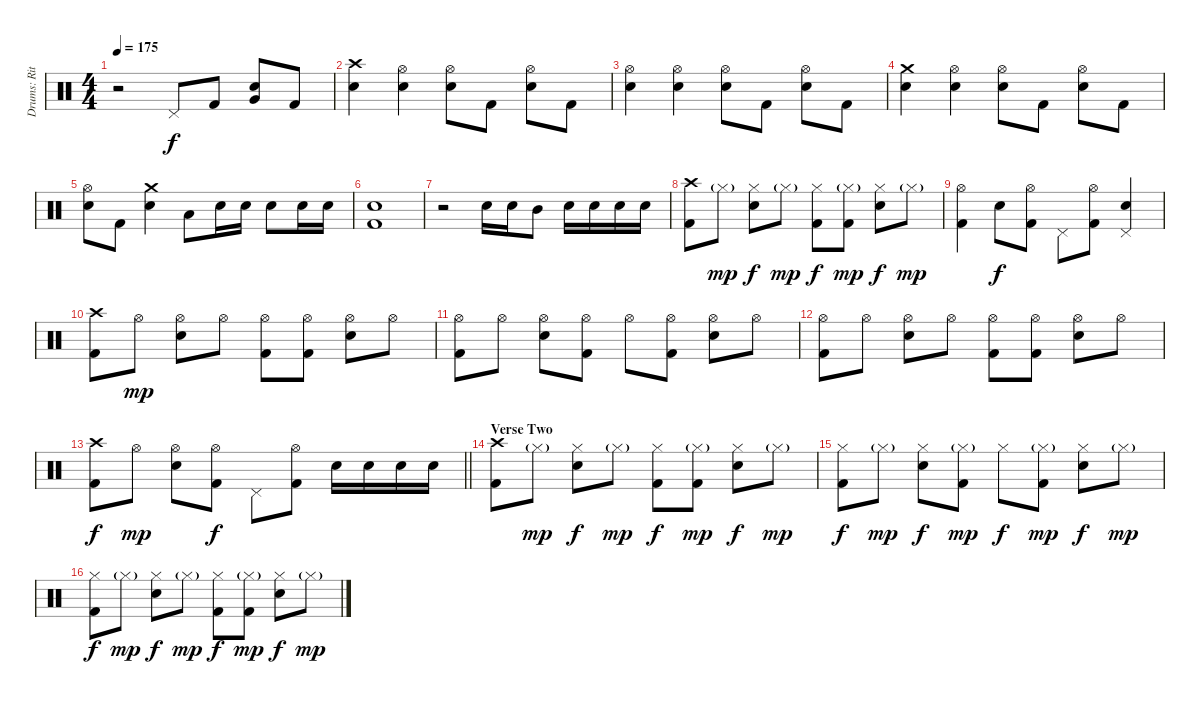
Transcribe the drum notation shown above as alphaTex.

\track ("Drums: Ritsu Tainaka" "Drums: Rit") {instrument percussion}
\staff {score}
\articulation defaults
\ts (4 4)
\tempo 175
\clef neutral
\ks c
r.2{dy f} "Pedal Hi-Hat (hit)".8 "Kick (hit) 2".8 ("Snare (hit) 2" "Very Low Tom (hit)").8 "Kick (hit) 2".8 |
("Crash high (hit)" "Snare (hit) 2").4 ("Hi-Hat (open)" "Snare (hit) 2").4 ("Hi-Hat (open)" "Snare (hit) 2").8 "Kick (hit) 2".8 ("Hi-Hat (open)" "Snare (hit) 2").8 "Kick (hit) 2".8 |
("Hi-Hat (open)" "Snare (hit) 2").4 ("Hi-Hat (open)" "Snare (hit) 2").4 ("Hi-Hat (open)" "Snare (hit) 2").8 "Kick (hit) 2".8 ("Hi-Hat (open)" "Snare (hit) 2").8 "Kick (hit) 2".8 |
("Crash medium (hit)" "Snare (hit) 2").4 ("Hi-Hat (open)" "Snare (hit) 2").4 ("Hi-Hat (open)" "Snare (hit) 2").8 "Kick (hit) 2".8 ("Hi-Hat (open)" "Snare (hit) 2").8 "Kick (hit) 2".8 |
("Hi-Hat (open)" "Snare (hit) 2").8 "Kick (hit) 2".8 ("Crash medium (hit)" "Snare (hit) 2").4 "Low Tom (hit)".8 "Snare (hit) 2".16 "Snare (hit) 2".16 "Snare (hit) 2".8 "Snare (hit) 2".16 "Snare (hit) 2".16 |
("Snare (hit) 2" "Kick (hit) 2").1 |
r.2 "Snare (hit) 2".16 "Snare (hit) 2".16 "Mid Tom (hit)".8 "Snare (hit) 2".16 "Snare (hit) 2".16 "Snare (hit) 2".16 "Snare (hit) 2".16 |
("Crash high (hit)" "Kick (hit) 2").8 "Hi-Hat (closed)"{g}.8{dy mp} ("Hi-Hat (closed)" "Snare (hit) 2").8{dy f} "Hi-Hat (closed)"{g}.8{dy mp} ("Hi-Hat (closed)" "Kick (hit) 2").8{dy f} ("Hi-Hat (closed)"{g} "Kick (hit) 2").8{dy mp} ("Hi-Hat (closed)" "Snare (hit) 2").8{dy f} "Hi-Hat (closed)"{g}.8{dy mp} |
("Hi-Hat (open)" "Kick (hit) 2").4 "Snare (hit) 2".8{dy f} ("Hi-Hat (open)" "Kick (hit) 2").8 "Pedal Hi-Hat (hit)".8 ("Hi-Hat (open)" "Kick (hit) 2").8 ("Pedal Hi-Hat (hit)" "Snare (hit) 2").4 |
("Crash high (hit)" "Kick (hit) 2").8 "Hi-Hat (open)".8{dy mp} ("Hi-Hat (open)" "Snare (hit) 2").8 "Hi-Hat (open)".8 ("Hi-Hat (open)" "Kick (hit) 2").8 ("Hi-Hat (open)" "Kick (hit) 2").8 ("Hi-Hat (open)" "Snare (hit) 2").8 "Hi-Hat (open)".8 |
("Hi-Hat (open)" "Kick (hit) 2").8 "Hi-Hat (open)".8 ("Hi-Hat (open)" "Snare (hit) 2").8 ("Hi-Hat (open)" "Kick (hit) 2").8 "Hi-Hat (open)".8 ("Hi-Hat (open)" "Kick (hit) 2").8 ("Hi-Hat (open)" "Snare (hit) 2").8 "Hi-Hat (open)".8 |
("Hi-Hat (open)" "Kick (hit) 2").8 "Hi-Hat (open)".8 ("Hi-Hat (open)" "Snare (hit) 2").8 "Hi-Hat (open)".8 ("Hi-Hat (open)" "Kick (hit) 2").8 ("Hi-Hat (open)" "Kick (hit) 2").8 ("Hi-Hat (open)" "Snare (hit) 2").8 "Hi-Hat (open)".8 |
\barLineRight lightlight
("Crash high (hit)" "Kick (hit) 2").8{dy f} "Hi-Hat (open)".8{dy mp} ("Hi-Hat (open)" "Snare (hit) 2").8 ("Hi-Hat (open)" "Kick (hit) 2").8{dy f} "Pedal Hi-Hat (hit)".8 ("Hi-Hat (open)" "Kick (hit) 2").8 "Snare (hit) 2".16 "Snare (hit) 2".16 "Snare (hit) 2".16 "Snare (hit) 2".16 |
\section ("" "Verse Two")
("Crash high (hit)" "Kick (hit) 2").8 "Hi-Hat (closed)"{g}.8{dy mp} ("Hi-Hat (closed)" "Snare (hit) 2").8{dy f} "Hi-Hat (closed)"{g}.8{dy mp} ("Hi-Hat (closed)" "Kick (hit) 2").8{dy f} ("Hi-Hat (closed)"{g} "Kick (hit) 2").8{dy mp} ("Hi-Hat (closed)" "Snare (hit) 2").8{dy f} "Hi-Hat (closed)"{g}.8{dy mp} |
("Hi-Hat (closed)" "Kick (hit) 2").8{dy f} "Hi-Hat (closed)"{g}.8{dy mp} ("Hi-Hat (closed)" "Snare (hit) 2").8{dy f} ("Hi-Hat (closed)"{g} "Kick (hit) 2").8{dy mp} "Hi-Hat (closed)".8{dy f} ("Hi-Hat (closed)"{g} "Kick (hit) 2").8{dy mp} ("Hi-Hat (closed)" "Snare (hit) 2").8{dy f} "Hi-Hat (closed)"{g}.8{dy mp} |
("Hi-Hat (closed)" "Kick (hit) 2").8{dy f} "Hi-Hat (closed)"{g}.8{dy mp} ("Hi-Hat (closed)" "Snare (hit) 2").8{dy f} "Hi-Hat (closed)"{g}.8{dy mp} ("Hi-Hat (closed)" "Kick (hit) 2").8{dy f} ("Hi-Hat (closed)"{g} "Kick (hit) 2").8{dy mp} ("Hi-Hat (closed)" "Snare (hit) 2").8{dy f} "Hi-Hat (closed)"{g}.8{dy mp}
